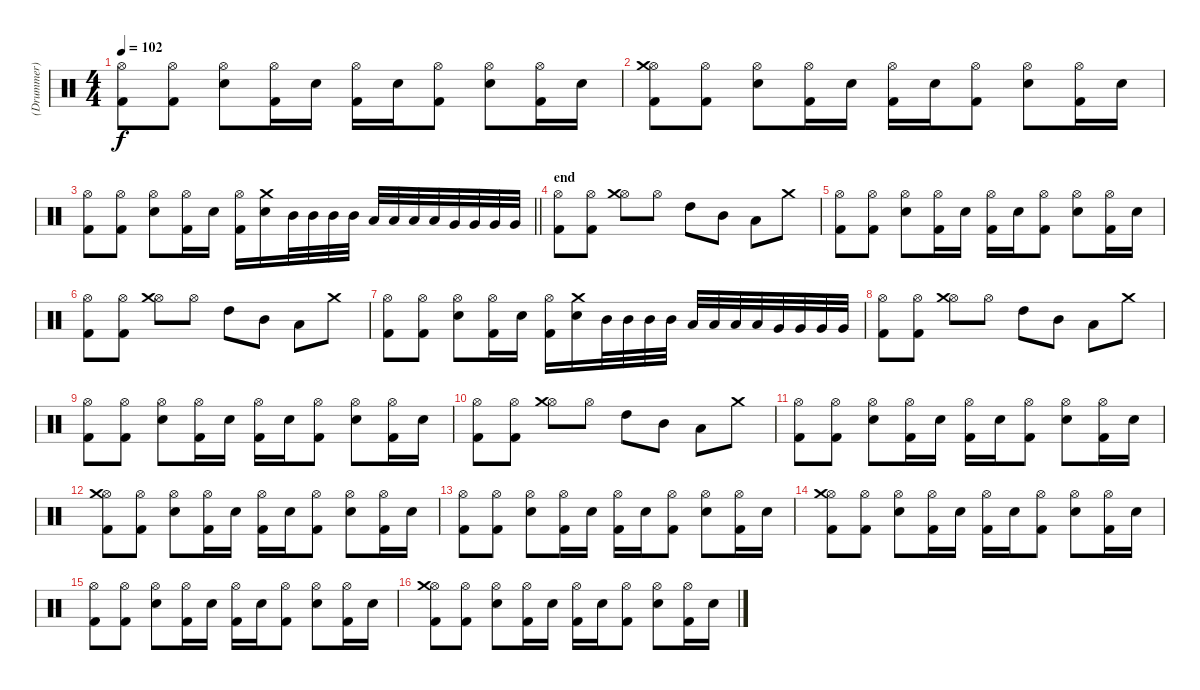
\track ("(Drummer)" "(Drummer)") {solo instrument percussion}
\staff {score}
\articulation defaults
\ts (4 4)
\tempo 102
\clef neutral
\ks c
("Hi-Hat (open)" "Kick (hit) 2").8{dy f} ("Hi-Hat (open)" "Kick (hit) 2").8 ("Hi-Hat (open)" "Electric Snare (hit)").8 ("Hi-Hat (open)" "Kick (hit) 2").16 "Electric Snare (hit)".16 ("Hi-Hat (open)" "Kick (hit) 2").16 "Electric Snare (hit)".16 ("Hi-Hat (open)" "Kick (hit) 2").8 ("Hi-Hat (open)" "Electric Snare (hit)").8 ("Hi-Hat (open)" "Kick (hit) 2").16 "Electric Snare (hit)".16 |
("Hi-Hat (open)" "Crash medium (hit)" "Kick (hit) 2").8 ("Hi-Hat (open)" "Kick (hit) 2").8 ("Hi-Hat (open)" "Electric Snare (hit)").8 ("Hi-Hat (open)" "Kick (hit) 2").16 "Electric Snare (hit)".16 ("Hi-Hat (open)" "Kick (hit) 2").16 "Electric Snare (hit)".16 ("Hi-Hat (open)" "Kick (hit) 2").8 ("Hi-Hat (open)" "Electric Snare (hit)").8 ("Hi-Hat (open)" "Kick (hit) 2").16 "Electric Snare (hit)".16 |
\barLineRight lightlight
("Hi-Hat (open)" "Kick (hit) 2").8 ("Hi-Hat (open)" "Kick (hit) 2").8 ("Hi-Hat (open)" "Electric Snare (hit)").8 ("Hi-Hat (open)" "Kick (hit) 2").16 "Electric Snare (hit)".16 ("Hi-Hat (open)" "Kick (hit) 2").16 ("Crash medium (hit)" "Electric Snare (hit)").16 "Mid Tom (hit)".32 "Mid Tom (hit)".32 "Mid Tom (hit)".32 "Mid Tom (hit)".32 "Low Tom (hit)".32 "Low Tom (hit)".32 "Low Tom (hit)".32 "Low Tom (hit)".32 "Very Low Tom (hit)".32 "Very Low Tom (hit)".32 "Very Low Tom (hit)".32 "Very Low Tom (hit)".32 |
\section ("" "end")
("Hi-Hat (open)" "Kick (hit) 2").8 ("Hi-Hat (open)" "Kick (hit) 2").8 ("Hi-Hat (open)" "Crash medium (hit)").8 "Hi-Hat (open)".8 "High Tom (hit)".8 "Mid Tom (hit)".8 "Low Tom (hit)".8 "Crash medium (hit)".8 |
("Hi-Hat (open)" "Kick (hit) 2").8 ("Hi-Hat (open)" "Kick (hit) 2").8 ("Hi-Hat (open)" "Electric Snare (hit)").8 ("Hi-Hat (open)" "Kick (hit) 2").16 "Electric Snare (hit)".16 ("Hi-Hat (open)" "Kick (hit) 2").16 "Electric Snare (hit)".16 ("Hi-Hat (open)" "Kick (hit) 2").8 ("Hi-Hat (open)" "Electric Snare (hit)").8 ("Hi-Hat (open)" "Kick (hit) 2").16 "Electric Snare (hit)".16 |
("Hi-Hat (open)" "Kick (hit) 2").8 ("Hi-Hat (open)" "Kick (hit) 2").8 ("Hi-Hat (open)" "Crash medium (hit)").8 "Hi-Hat (open)".8 "High Tom (hit)".8 "Mid Tom (hit)".8 "Low Tom (hit)".8 "Crash medium (hit)".8 |
("Hi-Hat (open)" "Kick (hit) 2").8 ("Hi-Hat (open)" "Kick (hit) 2").8 ("Hi-Hat (open)" "Electric Snare (hit)").8 ("Hi-Hat (open)" "Kick (hit) 2").16 "Electric Snare (hit)".16 ("Hi-Hat (open)" "Kick (hit) 2").16 ("Crash medium (hit)" "Electric Snare (hit)").16 "Mid Tom (hit)".32 "Mid Tom (hit)".32 "Mid Tom (hit)".32 "Mid Tom (hit)".32 "Low Tom (hit)".32 "Low Tom (hit)".32 "Low Tom (hit)".32 "Low Tom (hit)".32 "Very Low Tom (hit)".32 "Very Low Tom (hit)".32 "Very Low Tom (hit)".32 "Very Low Tom (hit)".32 |
("Hi-Hat (open)" "Kick (hit) 2").8 ("Hi-Hat (open)" "Kick (hit) 2").8 ("Hi-Hat (open)" "Crash medium (hit)").8 "Hi-Hat (open)".8 "High Tom (hit)".8 "Mid Tom (hit)".8 "Low Tom (hit)".8 "Crash medium (hit)".8 |
("Hi-Hat (open)" "Kick (hit) 2").8 ("Hi-Hat (open)" "Kick (hit) 2").8 ("Hi-Hat (open)" "Electric Snare (hit)").8 ("Hi-Hat (open)" "Kick (hit) 2").16 "Electric Snare (hit)".16 ("Hi-Hat (open)" "Kick (hit) 2").16 "Electric Snare (hit)".16 ("Hi-Hat (open)" "Kick (hit) 2").8 ("Hi-Hat (open)" "Electric Snare (hit)").8 ("Hi-Hat (open)" "Kick (hit) 2").16 "Electric Snare (hit)".16 |
("Hi-Hat (open)" "Kick (hit) 2").8 ("Hi-Hat (open)" "Kick (hit) 2").8 ("Hi-Hat (open)" "Crash medium (hit)").8 "Hi-Hat (open)".8 "High Tom (hit)".8 "Mid Tom (hit)".8 "Low Tom (hit)".8 "Crash medium (hit)".8 |
("Hi-Hat (open)" "Kick (hit) 2").8 ("Hi-Hat (open)" "Kick (hit) 2").8 ("Hi-Hat (open)" "Electric Snare (hit)").8 ("Hi-Hat (open)" "Kick (hit) 2").16 "Electric Snare (hit)".16 ("Hi-Hat (open)" "Kick (hit) 2").16 "Electric Snare (hit)".16 ("Hi-Hat (open)" "Kick (hit) 2").8 ("Hi-Hat (open)" "Electric Snare (hit)").8 ("Hi-Hat (open)" "Kick (hit) 2").16 "Electric Snare (hit)".16 |
("Hi-Hat (open)" "Crash medium (hit)" "Kick (hit) 2").8 ("Hi-Hat (open)" "Kick (hit) 2").8 ("Hi-Hat (open)" "Electric Snare (hit)").8 ("Hi-Hat (open)" "Kick (hit) 2").16 "Electric Snare (hit)".16 ("Hi-Hat (open)" "Kick (hit) 2").16 "Electric Snare (hit)".16 ("Hi-Hat (open)" "Kick (hit) 2").8 ("Hi-Hat (open)" "Electric Snare (hit)").8 ("Hi-Hat (open)" "Kick (hit) 2").16 "Electric Snare (hit)".16 |
("Hi-Hat (open)" "Kick (hit) 2").8 ("Hi-Hat (open)" "Kick (hit) 2").8 ("Hi-Hat (open)" "Electric Snare (hit)").8 ("Hi-Hat (open)" "Kick (hit) 2").16 "Electric Snare (hit)".16 ("Hi-Hat (open)" "Kick (hit) 2").16 "Electric Snare (hit)".16 ("Hi-Hat (open)" "Kick (hit) 2").8 ("Hi-Hat (open)" "Electric Snare (hit)").8 ("Hi-Hat (open)" "Kick (hit) 2").16 "Electric Snare (hit)".16 |
("Hi-Hat (open)" "Crash medium (hit)" "Kick (hit) 2").8 ("Hi-Hat (open)" "Kick (hit) 2").8 ("Hi-Hat (open)" "Electric Snare (hit)").8 ("Hi-Hat (open)" "Kick (hit) 2").16 "Electric Snare (hit)".16 ("Hi-Hat (open)" "Kick (hit) 2").16 "Electric Snare (hit)".16 ("Hi-Hat (open)" "Kick (hit) 2").8 ("Hi-Hat (open)" "Electric Snare (hit)").8 ("Hi-Hat (open)" "Kick (hit) 2").16 "Electric Snare (hit)".16 |
("Hi-Hat (open)" "Kick (hit) 2").8 ("Hi-Hat (open)" "Kick (hit) 2").8 ("Hi-Hat (open)" "Electric Snare (hit)").8 ("Hi-Hat (open)" "Kick (hit) 2").16 "Electric Snare (hit)".16 ("Hi-Hat (open)" "Kick (hit) 2").16 "Electric Snare (hit)".16 ("Hi-Hat (open)" "Kick (hit) 2").8 ("Hi-Hat (open)" "Electric Snare (hit)").8 ("Hi-Hat (open)" "Kick (hit) 2").16 "Electric Snare (hit)".16 |
("Hi-Hat (open)" "Crash medium (hit)" "Kick (hit) 2").8 ("Hi-Hat (open)" "Kick (hit) 2").8 ("Hi-Hat (open)" "Electric Snare (hit)").8 ("Hi-Hat (open)" "Kick (hit) 2").16 "Electric Snare (hit)".16 ("Hi-Hat (open)" "Kick (hit) 2").16 "Electric Snare (hit)".16 ("Hi-Hat (open)" "Kick (hit) 2").8 ("Hi-Hat (open)" "Electric Snare (hit)").8 ("Hi-Hat (open)" "Kick (hit) 2").16 "Electric Snare (hit)".16
